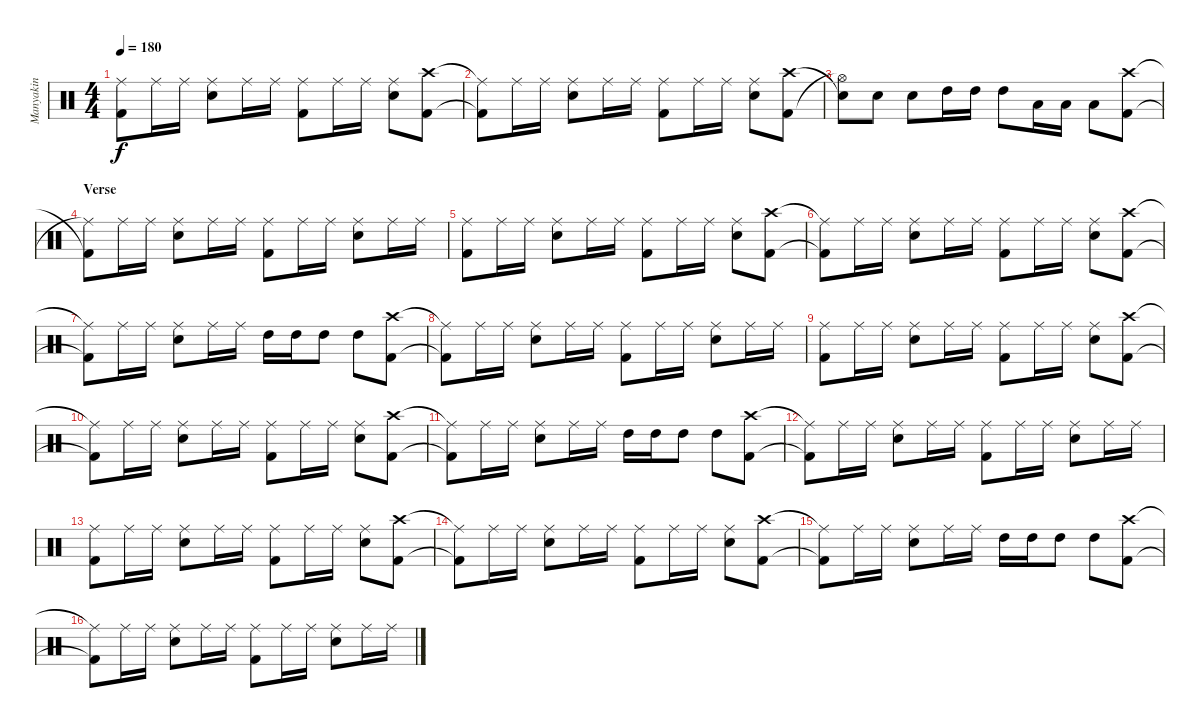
\track ("Manyakin" "Manyakin") {instrument percussion}
\staff {score}
\articulation defaults
\ts (4 4)
\tempo 180
\clef neutral
\ks c
("Kick (hit) 2" "Ride (middle)").8{dy f} "Ride (middle)".16 "Ride (middle)".16 ("Snare (hit) 2" "Ride (middle)").8 "Ride (middle)".16 "Ride (middle)".16 ("Kick (hit) 2" "Ride (middle)").8 "Ride (middle)".16 "Ride (middle)".16 ("Snare (hit) 2" "Ride (middle)").8 ("Kick (hit) 2" "Crash high (hit)").8 |
("Kick (hit) 2"{t} "Ride (middle)"{t}).8 "Ride (middle)".16 "Ride (middle)".16 ("Snare (hit) 2" "Ride (middle)").8 "Ride (middle)".16 "Ride (middle)".16 ("Kick (hit) 2" "Ride (middle)").8 "Ride (middle)".16 "Ride (middle)".16 ("Snare (hit) 2" "Ride (middle)").8 ("Kick (hit) 2" "Crash high (hit)").8 |
("Hi-Hat (open)"{t} "Snare (hit)"{t}).8 "Snare (hit) 2".8 "Snare (hit) 2".8 "High Tom (hit)".16 "High Tom (hit)".16 "High Tom (hit)".8 "Low Tom (hit)".16 "Low Tom (hit)".16 "Low Tom (hit)".8 ("Kick (hit) 2" "Crash high (hit)").8 |
\section ("" "Verse")
("Ride (middle)"{t} "Kick (hit) 2"{t}).8 "Ride (middle)".16 "Ride (middle)".16 ("Ride (middle)" "Snare (hit) 2").8 "Ride (middle)".16 "Ride (middle)".16 ("Ride (middle)" "Kick (hit) 2").8 "Ride (middle)".16 "Ride (middle)".16 ("Ride (middle)" "Snare (hit) 2").8 "Ride (middle)".16 "Ride (middle)".16 |
("Kick (hit) 2" "Ride (middle)").8 "Ride (middle)".16 "Ride (middle)".16 ("Snare (hit) 2" "Ride (middle)").8 "Ride (middle)".16 "Ride (middle)".16 ("Kick (hit) 2" "Ride (middle)").8 "Ride (middle)".16 "Ride (middle)".16 ("Snare (hit) 2" "Ride (middle)").8 ("Kick (hit) 2" "Crash high (hit)").8 |
("Kick (hit) 2"{t} "Ride (middle)"{t}).8 "Ride (middle)".16 "Ride (middle)".16 ("Snare (hit) 2" "Ride (middle)").8 "Ride (middle)".16 "Ride (middle)".16 ("Kick (hit) 2" "Ride (middle)").8 "Ride (middle)".16 "Ride (middle)".16 ("Snare (hit) 2" "Ride (middle)").8 ("Kick (hit) 2" "Crash high (hit)").8 |
("Kick (hit) 2"{t} "Ride (middle)"{t}).8 "Ride (middle)".16 "Ride (middle)".16 ("Snare (hit) 2" "Ride (middle)").8 "Ride (middle)".16 "Ride (middle)".16 "High Tom (hit)".16 "High Tom (hit)".16 "High Tom (hit)".8 "High Tom (hit)".8 ("Crash high (hit)" "Kick (hit) 2").8 |
("Ride (middle)"{t} "Kick (hit) 2"{t}).8 "Ride (middle)".16 "Ride (middle)".16 ("Ride (middle)" "Snare (hit) 2").8 "Ride (middle)".16 "Ride (middle)".16 ("Ride (middle)" "Kick (hit) 2").8 "Ride (middle)".16 "Ride (middle)".16 ("Ride (middle)" "Snare (hit) 2").8 "Ride (middle)".16 "Ride (middle)".16 |
("Kick (hit) 2" "Ride (middle)").8 "Ride (middle)".16 "Ride (middle)".16 ("Snare (hit) 2" "Ride (middle)").8 "Ride (middle)".16 "Ride (middle)".16 ("Kick (hit) 2" "Ride (middle)").8 "Ride (middle)".16 "Ride (middle)".16 ("Snare (hit) 2" "Ride (middle)").8 ("Kick (hit) 2" "Crash high (hit)").8 |
("Kick (hit) 2"{t} "Ride (middle)"{t}).8 "Ride (middle)".16 "Ride (middle)".16 ("Snare (hit) 2" "Ride (middle)").8 "Ride (middle)".16 "Ride (middle)".16 ("Kick (hit) 2" "Ride (middle)").8 "Ride (middle)".16 "Ride (middle)".16 ("Snare (hit) 2" "Ride (middle)").8 ("Kick (hit) 2" "Crash high (hit)").8 |
("Kick (hit) 2"{t} "Ride (middle)"{t}).8 "Ride (middle)".16 "Ride (middle)".16 ("Snare (hit) 2" "Ride (middle)").8 "Ride (middle)".16 "Ride (middle)".16 "High Tom (hit)".16 "High Tom (hit)".16 "High Tom (hit)".8 "High Tom (hit)".8 ("Crash high (hit)" "Kick (hit) 2").8 |
("Ride (middle)"{t} "Kick (hit) 2"{t}).8 "Ride (middle)".16 "Ride (middle)".16 ("Ride (middle)" "Snare (hit) 2").8 "Ride (middle)".16 "Ride (middle)".16 ("Ride (middle)" "Kick (hit) 2").8 "Ride (middle)".16 "Ride (middle)".16 ("Ride (middle)" "Snare (hit) 2").8 "Ride (middle)".16 "Ride (middle)".16 |
("Kick (hit) 2" "Ride (middle)").8 "Ride (middle)".16 "Ride (middle)".16 ("Snare (hit) 2" "Ride (middle)").8 "Ride (middle)".16 "Ride (middle)".16 ("Kick (hit) 2" "Ride (middle)").8 "Ride (middle)".16 "Ride (middle)".16 ("Snare (hit) 2" "Ride (middle)").8 ("Kick (hit) 2" "Crash high (hit)").8 |
("Kick (hit) 2"{t} "Ride (middle)"{t}).8 "Ride (middle)".16 "Ride (middle)".16 ("Snare (hit) 2" "Ride (middle)").8 "Ride (middle)".16 "Ride (middle)".16 ("Kick (hit) 2" "Ride (middle)").8 "Ride (middle)".16 "Ride (middle)".16 ("Snare (hit) 2" "Ride (middle)").8 ("Kick (hit) 2" "Crash high (hit)").8 |
("Kick (hit) 2"{t} "Ride (middle)"{t}).8 "Ride (middle)".16 "Ride (middle)".16 ("Snare (hit) 2" "Ride (middle)").8 "Ride (middle)".16 "Ride (middle)".16 "High Tom (hit)".16 "High Tom (hit)".16 "High Tom (hit)".8 "High Tom (hit)".8 ("Crash high (hit)" "Kick (hit) 2").8 |
("Ride (middle)"{t} "Kick (hit) 2"{t}).8 "Ride (middle)".16 "Ride (middle)".16 ("Ride (middle)" "Snare (hit) 2").8 "Ride (middle)".16 "Ride (middle)".16 ("Ride (middle)" "Kick (hit) 2").8 "Ride (middle)".16 "Ride (middle)".16 ("Ride (middle)" "Snare (hit) 2").8 "Ride (middle)".16 "Ride (middle)".16
